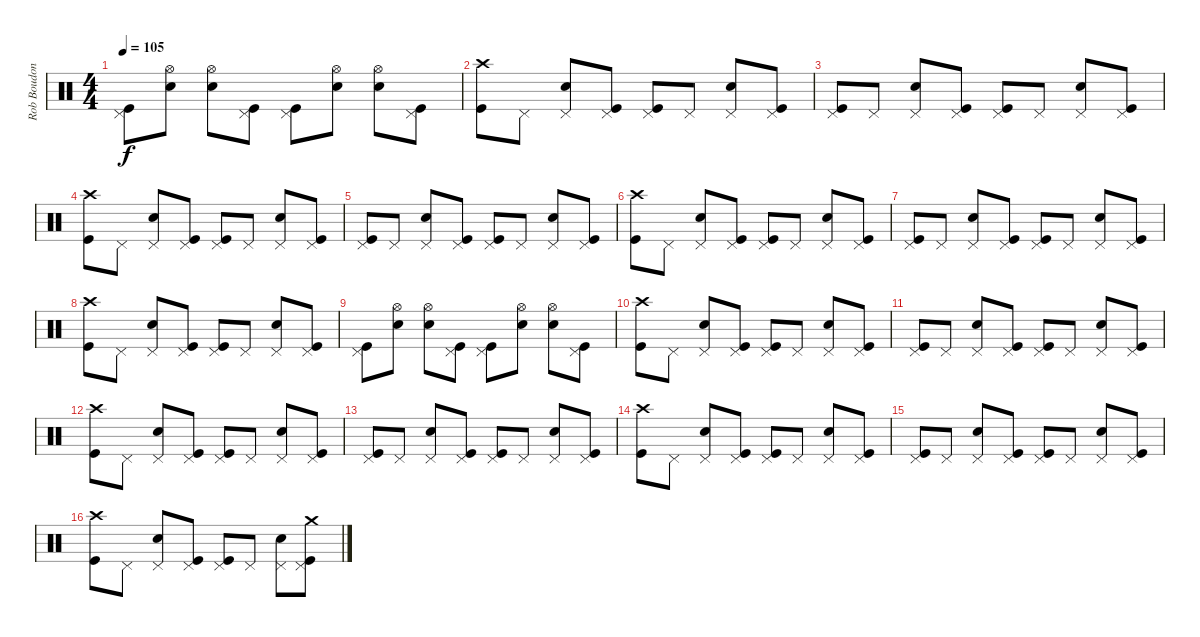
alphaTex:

\track ("Rob Boudon [Drums]" "Rob Boudon") {instrument percussion}
\staff {score}
\articulation defaults
\ts (4 4)
\tempo 105
\clef neutral
\ks c
("Pedal Hi-Hat (hit)" "Kick (hit)").8{dy f} ("Hi-Hat (open)" "Electric Snare (hit)").8 ("Electric Snare (hit)" "Hi-Hat (open)").8 ("Pedal Hi-Hat (hit)" "Kick (hit)").8 ("Pedal Hi-Hat (hit)" "Kick (hit)").8 ("Hi-Hat (open)" "Electric Snare (hit)").8 ("Hi-Hat (open)" "Electric Snare (hit)").8 ("Pedal Hi-Hat (hit)" "Kick (hit)").8 |
("Crash high (hit)" "Kick (hit)").8 "Pedal Hi-Hat (hit)".8 ("Pedal Hi-Hat (hit)" "Electric Snare (hit)").8 ("Pedal Hi-Hat (hit)" "Kick (hit)").8 ("Pedal Hi-Hat (hit)" "Kick (hit)").8 "Pedal Hi-Hat (hit)".8 ("Pedal Hi-Hat (hit)" "Electric Snare (hit)").8 ("Pedal Hi-Hat (hit)" "Kick (hit)").8 |
("Pedal Hi-Hat (hit)" "Kick (hit)").8 "Pedal Hi-Hat (hit)".8 ("Electric Snare (hit)" "Pedal Hi-Hat (hit)").8 ("Pedal Hi-Hat (hit)" "Kick (hit)").8 ("Pedal Hi-Hat (hit)" "Kick (hit)").8 "Pedal Hi-Hat (hit)".8 ("Pedal Hi-Hat (hit)" "Electric Snare (hit)").8 ("Pedal Hi-Hat (hit)" "Kick (hit)").8 |
("Crash high (hit)" "Kick (hit)").8 "Pedal Hi-Hat (hit)".8 ("Pedal Hi-Hat (hit)" "Electric Snare (hit)").8 ("Pedal Hi-Hat (hit)" "Kick (hit)").8 ("Pedal Hi-Hat (hit)" "Kick (hit)").8 "Pedal Hi-Hat (hit)".8 ("Pedal Hi-Hat (hit)" "Electric Snare (hit)").8 ("Pedal Hi-Hat (hit)" "Kick (hit)").8 |
("Pedal Hi-Hat (hit)" "Kick (hit)").8 "Pedal Hi-Hat (hit)".8 ("Electric Snare (hit)" "Pedal Hi-Hat (hit)").8 ("Pedal Hi-Hat (hit)" "Kick (hit)").8 ("Pedal Hi-Hat (hit)" "Kick (hit)").8 "Pedal Hi-Hat (hit)".8 ("Pedal Hi-Hat (hit)" "Electric Snare (hit)").8 ("Pedal Hi-Hat (hit)" "Kick (hit)").8 |
("Crash high (hit)" "Kick (hit)").8 "Pedal Hi-Hat (hit)".8 ("Pedal Hi-Hat (hit)" "Electric Snare (hit)").8 ("Pedal Hi-Hat (hit)" "Kick (hit)").8 ("Pedal Hi-Hat (hit)" "Kick (hit)").8 "Pedal Hi-Hat (hit)".8 ("Pedal Hi-Hat (hit)" "Electric Snare (hit)").8 ("Pedal Hi-Hat (hit)" "Kick (hit)").8 |
("Pedal Hi-Hat (hit)" "Kick (hit)").8 "Pedal Hi-Hat (hit)".8 ("Electric Snare (hit)" "Pedal Hi-Hat (hit)").8 ("Pedal Hi-Hat (hit)" "Kick (hit)").8 ("Pedal Hi-Hat (hit)" "Kick (hit)").8 "Pedal Hi-Hat (hit)".8 ("Pedal Hi-Hat (hit)" "Electric Snare (hit)").8 ("Pedal Hi-Hat (hit)" "Kick (hit)").8 |
("Crash high (hit)" "Kick (hit)").8 "Pedal Hi-Hat (hit)".8 ("Pedal Hi-Hat (hit)" "Electric Snare (hit)").8 ("Pedal Hi-Hat (hit)" "Kick (hit)").8 ("Pedal Hi-Hat (hit)" "Kick (hit)").8 "Pedal Hi-Hat (hit)".8 ("Pedal Hi-Hat (hit)" "Electric Snare (hit)").8 ("Pedal Hi-Hat (hit)" "Kick (hit)").8 |
("Pedal Hi-Hat (hit)" "Kick (hit)").8 ("Hi-Hat (open)" "Electric Snare (hit)").8 ("Hi-Hat (open)" "Electric Snare (hit)").8 ("Pedal Hi-Hat (hit)" "Kick (hit)").8 ("Pedal Hi-Hat (hit)" "Kick (hit)").8 ("Hi-Hat (open)" "Electric Snare (hit)").8 ("Hi-Hat (open)" "Electric Snare (hit)").8 ("Pedal Hi-Hat (hit)" "Kick (hit)").8 |
("Crash high (hit)" "Kick (hit)").8 "Pedal Hi-Hat (hit)".8 ("Pedal Hi-Hat (hit)" "Electric Snare (hit)").8 ("Pedal Hi-Hat (hit)" "Kick (hit)").8 ("Pedal Hi-Hat (hit)" "Kick (hit)").8 "Pedal Hi-Hat (hit)".8 ("Pedal Hi-Hat (hit)" "Electric Snare (hit)").8 ("Pedal Hi-Hat (hit)" "Kick (hit)").8 |
("Pedal Hi-Hat (hit)" "Kick (hit)").8 "Pedal Hi-Hat (hit)".8 ("Electric Snare (hit)" "Pedal Hi-Hat (hit)").8 ("Pedal Hi-Hat (hit)" "Kick (hit)").8 ("Pedal Hi-Hat (hit)" "Kick (hit)").8 "Pedal Hi-Hat (hit)".8 ("Pedal Hi-Hat (hit)" "Electric Snare (hit)").8 ("Pedal Hi-Hat (hit)" "Kick (hit)").8 |
("Crash high (hit)" "Kick (hit)").8 "Pedal Hi-Hat (hit)".8 ("Pedal Hi-Hat (hit)" "Electric Snare (hit)").8 ("Pedal Hi-Hat (hit)" "Kick (hit)").8 ("Pedal Hi-Hat (hit)" "Kick (hit)").8 "Pedal Hi-Hat (hit)".8 ("Pedal Hi-Hat (hit)" "Electric Snare (hit)").8 ("Pedal Hi-Hat (hit)" "Kick (hit)").8 |
("Pedal Hi-Hat (hit)" "Kick (hit)").8 "Pedal Hi-Hat (hit)".8 ("Electric Snare (hit)" "Pedal Hi-Hat (hit)").8 ("Pedal Hi-Hat (hit)" "Kick (hit)").8 ("Pedal Hi-Hat (hit)" "Kick (hit)").8 "Pedal Hi-Hat (hit)".8 ("Pedal Hi-Hat (hit)" "Electric Snare (hit)").8 ("Pedal Hi-Hat (hit)" "Kick (hit)").8 |
("Crash high (hit)" "Kick (hit)").8 "Pedal Hi-Hat (hit)".8 ("Pedal Hi-Hat (hit)" "Electric Snare (hit)").8 ("Pedal Hi-Hat (hit)" "Kick (hit)").8 ("Pedal Hi-Hat (hit)" "Kick (hit)").8 "Pedal Hi-Hat (hit)".8 ("Pedal Hi-Hat (hit)" "Electric Snare (hit)").8 ("Pedal Hi-Hat (hit)" "Kick (hit)").8 |
("Pedal Hi-Hat (hit)" "Kick (hit)").8 "Pedal Hi-Hat (hit)".8 ("Electric Snare (hit)" "Pedal Hi-Hat (hit)").8 ("Pedal Hi-Hat (hit)" "Kick (hit)").8 ("Pedal Hi-Hat (hit)" "Kick (hit)").8 "Pedal Hi-Hat (hit)".8 ("Pedal Hi-Hat (hit)" "Electric Snare (hit)").8 ("Pedal Hi-Hat (hit)" "Kick (hit)").8 |
("Crash high (hit)" "Kick (hit)").8 "Pedal Hi-Hat (hit)".8 ("Pedal Hi-Hat (hit)" "Electric Snare (hit)").8 ("Pedal Hi-Hat (hit)" "Kick (hit)").8 ("Pedal Hi-Hat (hit)" "Kick (hit)").8 "Pedal Hi-Hat (hit)".8 ("Pedal Hi-Hat (hit)" "Electric Snare (hit)").8 ("Crash medium (hit)" "Pedal Hi-Hat (hit)" "Kick (hit)").8
